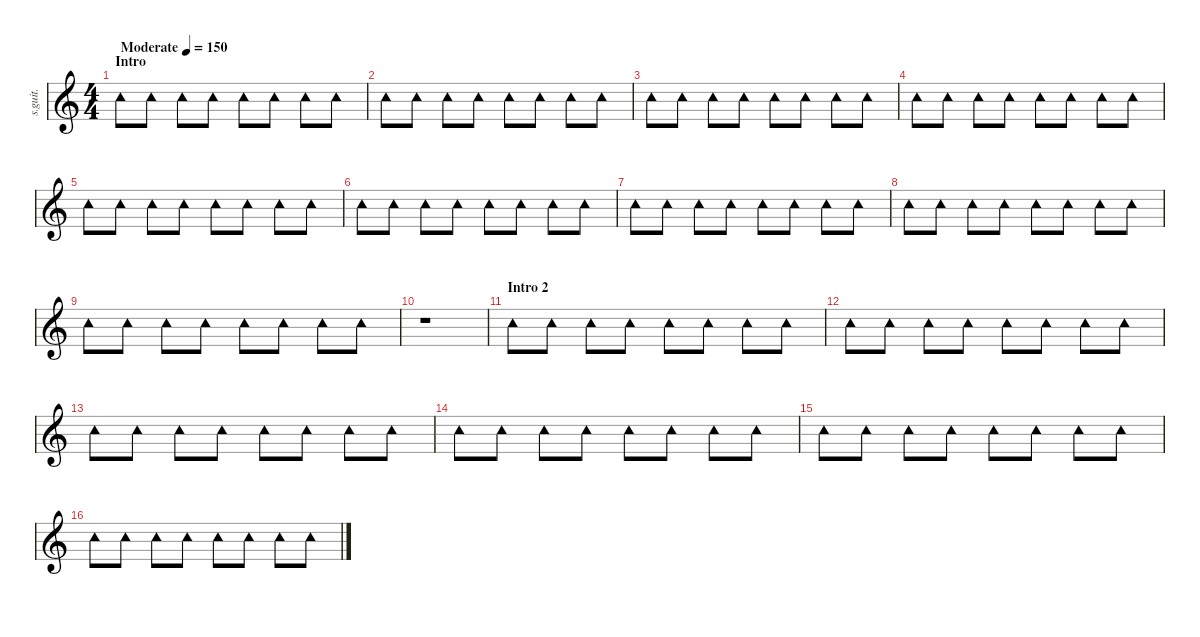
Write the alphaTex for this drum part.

\defaultSystemsLayout 4
\hideDynamics
\bracketExtendMode nobrackets
\track ("Synth Drums 2" "s.guit.") {instrument percussion}
\staff {score}
\articulation defaults
\ts (4 4)
\beaming (8 2 2 2 2)
\section ("" "Intro")
\tempo (150 "Moderate")
\clef g2
\ks c "Tambourine (hit)".8{lyrics (0 "") lyrics (1 "") lyrics (2 "") lyrics (3 "") lyrics (4 "") dy f} "Tambourine (hit)".8{lyrics (0 "") lyrics (1 "") lyrics (2 "") lyrics (3 "") lyrics (4 "")} "Tambourine (hit)".8{lyrics (0 "") lyrics (1 "") lyrics (2 "") lyrics (3 "") lyrics (4 "")} "Tambourine (hit)".8{lyrics (0 "") lyrics (1 "") lyrics (2 "") lyrics (3 "") lyrics (4 "")} "Tambourine (hit)".8{lyrics (0 "") lyrics (1 "") lyrics (2 "") lyrics (3 "") lyrics (4 "")} "Tambourine (hit)".8{lyrics (0 "") lyrics (1 "") lyrics (2 "") lyrics (3 "") lyrics (4 "")} "Tambourine (hit)".8{lyrics (0 "") lyrics (1 "") lyrics (2 "") lyrics (3 "") lyrics (4 "")} "Tambourine (hit)".8{lyrics (0 "") lyrics (1 "") lyrics (2 "") lyrics (3 "") lyrics (4 "")}
|
"Tambourine (hit)".8{lyrics (0 "") lyrics (1 "") lyrics (2 "") lyrics (3 "") lyrics (4 "")} "Tambourine (hit)".8{lyrics (0 "") lyrics (1 "") lyrics (2 "") lyrics (3 "") lyrics (4 "")} "Tambourine (hit)".8{lyrics (0 "") lyrics (1 "") lyrics (2 "") lyrics (3 "") lyrics (4 "")} "Tambourine (hit)".8{lyrics (0 "") lyrics (1 "") lyrics (2 "") lyrics (3 "") lyrics (4 "")} "Tambourine (hit)".8{lyrics (0 "") lyrics (1 "") lyrics (2 "") lyrics (3 "") lyrics (4 "")} "Tambourine (hit)".8{lyrics (0 "") lyrics (1 "") lyrics (2 "") lyrics (3 "") lyrics (4 "")} "Tambourine (hit)".8{lyrics (0 "") lyrics (1 "") lyrics (2 "") lyrics (3 "") lyrics (4 "")} "Tambourine (hit)".8{lyrics (0 "") lyrics (1 "") lyrics (2 "") lyrics (3 "") lyrics (4 "")} |
"Tambourine (hit)".8{lyrics (0 "") lyrics (1 "") lyrics (2 "") lyrics (3 "") lyrics (4 "")} "Tambourine (hit)".8{lyrics (0 "") lyrics (1 "") lyrics (2 "") lyrics (3 "") lyrics (4 "")} "Tambourine (hit)".8{lyrics (0 "") lyrics (1 "") lyrics (2 "") lyrics (3 "") lyrics (4 "")} "Tambourine (hit)".8{lyrics (0 "") lyrics (1 "") lyrics (2 "") lyrics (3 "") lyrics (4 "")} "Tambourine (hit)".8{lyrics (0 "") lyrics (1 "") lyrics (2 "") lyrics (3 "") lyrics (4 "")} "Tambourine (hit)".8{lyrics (0 "") lyrics (1 "") lyrics (2 "") lyrics (3 "") lyrics (4 "")} "Tambourine (hit)".8{lyrics (0 "") lyrics (1 "") lyrics (2 "") lyrics (3 "") lyrics (4 "")} "Tambourine (hit)".8{lyrics (0 "") lyrics (1 "") lyrics (2 "") lyrics (3 "") lyrics (4 "")} |
"Tambourine (hit)".8{lyrics (0 "") lyrics (1 "") lyrics (2 "") lyrics (3 "") lyrics (4 "")} "Tambourine (hit)".8{lyrics (0 "") lyrics (1 "") lyrics (2 "") lyrics (3 "") lyrics (4 "")} "Tambourine (hit)".8{lyrics (0 "") lyrics (1 "") lyrics (2 "") lyrics (3 "") lyrics (4 "")} "Tambourine (hit)".8{lyrics (0 "") lyrics (1 "") lyrics (2 "") lyrics (3 "") lyrics (4 "")} "Tambourine (hit)".8{lyrics (0 "") lyrics (1 "") lyrics (2 "") lyrics (3 "") lyrics (4 "")} "Tambourine (hit)".8{lyrics (0 "") lyrics (1 "") lyrics (2 "") lyrics (3 "") lyrics (4 "")} "Tambourine (hit)".8{lyrics (0 "") lyrics (1 "") lyrics (2 "") lyrics (3 "") lyrics (4 "")} "Tambourine (hit)".8{lyrics (0 "") lyrics (1 "") lyrics (2 "") lyrics (3 "") lyrics (4 "")} |
"Tambourine (hit)".8{lyrics (0 "") lyrics (1 "") lyrics (2 "") lyrics (3 "") lyrics (4 "")} "Tambourine (hit)".8{lyrics (0 "") lyrics (1 "") lyrics (2 "") lyrics (3 "") lyrics (4 "")} "Tambourine (hit)".8{lyrics (0 "") lyrics (1 "") lyrics (2 "") lyrics (3 "") lyrics (4 "")} "Tambourine (hit)".8{lyrics (0 "") lyrics (1 "") lyrics (2 "") lyrics (3 "") lyrics (4 "")} "Tambourine (hit)".8{lyrics (0 "") lyrics (1 "") lyrics (2 "") lyrics (3 "") lyrics (4 "")} "Tambourine (hit)".8{lyrics (0 "") lyrics (1 "") lyrics (2 "") lyrics (3 "") lyrics (4 "")} "Tambourine (hit)".8{lyrics (0 "") lyrics (1 "") lyrics (2 "") lyrics (3 "") lyrics (4 "")} "Tambourine (hit)".8{lyrics (0 "") lyrics (1 "") lyrics (2 "") lyrics (3 "") lyrics (4 "")} |
"Tambourine (hit)".8{lyrics (0 "") lyrics (1 "") lyrics (2 "") lyrics (3 "") lyrics (4 "")} "Tambourine (hit)".8{lyrics (0 "") lyrics (1 "") lyrics (2 "") lyrics (3 "") lyrics (4 "")} "Tambourine (hit)".8{lyrics (0 "") lyrics (1 "") lyrics (2 "") lyrics (3 "") lyrics (4 "")} "Tambourine (hit)".8{lyrics (0 "") lyrics (1 "") lyrics (2 "") lyrics (3 "") lyrics (4 "")} "Tambourine (hit)".8{lyrics (0 "") lyrics (1 "") lyrics (2 "") lyrics (3 "") lyrics (4 "")} "Tambourine (hit)".8{lyrics (0 "") lyrics (1 "") lyrics (2 "") lyrics (3 "") lyrics (4 "")} "Tambourine (hit)".8{lyrics (0 "") lyrics (1 "") lyrics (2 "") lyrics (3 "") lyrics (4 "")} "Tambourine (hit)".8{lyrics (0 "") lyrics (1 "") lyrics (2 "") lyrics (3 "") lyrics (4 "")} |
"Tambourine (hit)".8{lyrics (0 "") lyrics (1 "") lyrics (2 "") lyrics (3 "") lyrics (4 "")} "Tambourine (hit)".8{lyrics (0 "") lyrics (1 "") lyrics (2 "") lyrics (3 "") lyrics (4 "")} "Tambourine (hit)".8{lyrics (0 "") lyrics (1 "") lyrics (2 "") lyrics (3 "") lyrics (4 "")} "Tambourine (hit)".8{lyrics (0 "") lyrics (1 "") lyrics (2 "") lyrics (3 "") lyrics (4 "")} "Tambourine (hit)".8{lyrics (0 "") lyrics (1 "") lyrics (2 "") lyrics (3 "") lyrics (4 "")} "Tambourine (hit)".8{lyrics (0 "") lyrics (1 "") lyrics (2 "") lyrics (3 "") lyrics (4 "")} "Tambourine (hit)".8{lyrics (0 "") lyrics (1 "") lyrics (2 "") lyrics (3 "") lyrics (4 "")} "Tambourine (hit)".8{lyrics (0 "") lyrics (1 "") lyrics (2 "") lyrics (3 "") lyrics (4 "")} |
"Tambourine (hit)".8{lyrics (0 "") lyrics (1 "") lyrics (2 "") lyrics (3 "") lyrics (4 "")} "Tambourine (hit)".8{lyrics (0 "") lyrics (1 "") lyrics (2 "") lyrics (3 "") lyrics (4 "")} "Tambourine (hit)".8{lyrics (0 "") lyrics (1 "") lyrics (2 "") lyrics (3 "") lyrics (4 "")} "Tambourine (hit)".8{lyrics (0 "") lyrics (1 "") lyrics (2 "") lyrics (3 "") lyrics (4 "")} "Tambourine (hit)".8{lyrics (0 "") lyrics (1 "") lyrics (2 "") lyrics (3 "") lyrics (4 "")} "Tambourine (hit)".8{lyrics (0 "") lyrics (1 "") lyrics (2 "") lyrics (3 "") lyrics (4 "")} "Tambourine (hit)".8{lyrics (0 "") lyrics (1 "") lyrics (2 "") lyrics (3 "") lyrics (4 "")} "Tambourine (hit)".8{lyrics (0 "") lyrics (1 "") lyrics (2 "") lyrics (3 "") lyrics (4 "")} |
"Tambourine (hit)".8{lyrics (0 "") lyrics (1 "") lyrics (2 "") lyrics (3 "") lyrics (4 "")} "Tambourine (hit)".8{lyrics (0 "") lyrics (1 "") lyrics (2 "") lyrics (3 "") lyrics (4 "")} "Tambourine (hit)".8{lyrics (0 "") lyrics (1 "") lyrics (2 "") lyrics (3 "") lyrics (4 "")} "Tambourine (hit)".8{lyrics (0 "") lyrics (1 "") lyrics (2 "") lyrics (3 "") lyrics (4 "")} "Tambourine (hit)".8{lyrics (0 "") lyrics (1 "") lyrics (2 "") lyrics (3 "") lyrics (4 "")} "Tambourine (hit)".8{lyrics (0 "") lyrics (1 "") lyrics (2 "") lyrics (3 "") lyrics (4 "")} "Tambourine (hit)".8{lyrics (0 "") lyrics (1 "") lyrics (2 "") lyrics (3 "") lyrics (4 "")} "Tambourine (hit)".8{lyrics (0 "") lyrics (1 "") lyrics (2 "") lyrics (3 "") lyrics (4 "")} |
r.1 |
\section ("" "Intro 2")
"Tambourine (hit)".8{lyrics (0 "") lyrics (1 "") lyrics (2 "") lyrics (3 "") lyrics (4 "")} "Tambourine (hit)".8{lyrics (0 "") lyrics (1 "") lyrics (2 "") lyrics (3 "") lyrics (4 "")} "Tambourine (hit)".8{lyrics (0 "") lyrics (1 "") lyrics (2 "") lyrics (3 "") lyrics (4 "")} "Tambourine (hit)".8{lyrics (0 "") lyrics (1 "") lyrics (2 "") lyrics (3 "") lyrics (4 "")} "Tambourine (hit)".8{lyrics (0 "") lyrics (1 "") lyrics (2 "") lyrics (3 "") lyrics (4 "")} "Tambourine (hit)".8{lyrics (0 "") lyrics (1 "") lyrics (2 "") lyrics (3 "") lyrics (4 "")} "Tambourine (hit)".8{lyrics (0 "") lyrics (1 "") lyrics (2 "") lyrics (3 "") lyrics (4 "")} "Tambourine (hit)".8{lyrics (0 "") lyrics (1 "") lyrics (2 "") lyrics (3 "") lyrics (4 "")} |
"Tambourine (hit)".8{lyrics (0 "") lyrics (1 "") lyrics (2 "") lyrics (3 "") lyrics (4 "")} "Tambourine (hit)".8{lyrics (0 "") lyrics (1 "") lyrics (2 "") lyrics (3 "") lyrics (4 "")} "Tambourine (hit)".8{lyrics (0 "") lyrics (1 "") lyrics (2 "") lyrics (3 "") lyrics (4 "")} "Tambourine (hit)".8{lyrics (0 "") lyrics (1 "") lyrics (2 "") lyrics (3 "") lyrics (4 "")} "Tambourine (hit)".8{lyrics (0 "") lyrics (1 "") lyrics (2 "") lyrics (3 "") lyrics (4 "")} "Tambourine (hit)".8{lyrics (0 "") lyrics (1 "") lyrics (2 "") lyrics (3 "") lyrics (4 "")} "Tambourine (hit)".8{lyrics (0 "") lyrics (1 "") lyrics (2 "") lyrics (3 "") lyrics (4 "")} "Tambourine (hit)".8{lyrics (0 "") lyrics (1 "") lyrics (2 "") lyrics (3 "") lyrics (4 "")} |
"Tambourine (hit)".8{lyrics (0 "") lyrics (1 "") lyrics (2 "") lyrics (3 "") lyrics (4 "")} "Tambourine (hit)".8{lyrics (0 "") lyrics (1 "") lyrics (2 "") lyrics (3 "") lyrics (4 "")} "Tambourine (hit)".8{lyrics (0 "") lyrics (1 "") lyrics (2 "") lyrics (3 "") lyrics (4 "")} "Tambourine (hit)".8{lyrics (0 "") lyrics (1 "") lyrics (2 "") lyrics (3 "") lyrics (4 "")} "Tambourine (hit)".8{lyrics (0 "") lyrics (1 "") lyrics (2 "") lyrics (3 "") lyrics (4 "")} "Tambourine (hit)".8{lyrics (0 "") lyrics (1 "") lyrics (2 "") lyrics (3 "") lyrics (4 "")} "Tambourine (hit)".8{lyrics (0 "") lyrics (1 "") lyrics (2 "") lyrics (3 "") lyrics (4 "")} "Tambourine (hit)".8{lyrics (0 "") lyrics (1 "") lyrics (2 "") lyrics (3 "") lyrics (4 "")} |
"Tambourine (hit)".8{lyrics (0 "") lyrics (1 "") lyrics (2 "") lyrics (3 "") lyrics (4 "")} "Tambourine (hit)".8{lyrics (0 "") lyrics (1 "") lyrics (2 "") lyrics (3 "") lyrics (4 "")} "Tambourine (hit)".8{lyrics (0 "") lyrics (1 "") lyrics (2 "") lyrics (3 "") lyrics (4 "")} "Tambourine (hit)".8{lyrics (0 "") lyrics (1 "") lyrics (2 "") lyrics (3 "") lyrics (4 "")} "Tambourine (hit)".8{lyrics (0 "") lyrics (1 "") lyrics (2 "") lyrics (3 "") lyrics (4 "")} "Tambourine (hit)".8{lyrics (0 "") lyrics (1 "") lyrics (2 "") lyrics (3 "") lyrics (4 "")} "Tambourine (hit)".8{lyrics (0 "") lyrics (1 "") lyrics (2 "") lyrics (3 "") lyrics (4 "")} "Tambourine (hit)".8{lyrics (0 "") lyrics (1 "") lyrics (2 "") lyrics (3 "") lyrics (4 "")} |
"Tambourine (hit)".8{lyrics (0 "") lyrics (1 "") lyrics (2 "") lyrics (3 "") lyrics (4 "")} "Tambourine (hit)".8{lyrics (0 "") lyrics (1 "") lyrics (2 "") lyrics (3 "") lyrics (4 "")} "Tambourine (hit)".8{lyrics (0 "") lyrics (1 "") lyrics (2 "") lyrics (3 "") lyrics (4 "")} "Tambourine (hit)".8{lyrics (0 "") lyrics (1 "") lyrics (2 "") lyrics (3 "") lyrics (4 "")} "Tambourine (hit)".8{lyrics (0 "") lyrics (1 "") lyrics (2 "") lyrics (3 "") lyrics (4 "")} "Tambourine (hit)".8{lyrics (0 "") lyrics (1 "") lyrics (2 "") lyrics (3 "") lyrics (4 "")} "Tambourine (hit)".8{lyrics (0 "") lyrics (1 "") lyrics (2 "") lyrics (3 "") lyrics (4 "")} "Tambourine (hit)".8{lyrics (0 "") lyrics (1 "") lyrics (2 "") lyrics (3 "") lyrics (4 "")} |
"Tambourine (hit)".8{lyrics (0 "") lyrics (1 "") lyrics (2 "") lyrics (3 "") lyrics (4 "")} "Tambourine (hit)".8{lyrics (0 "") lyrics (1 "") lyrics (2 "") lyrics (3 "") lyrics (4 "")} "Tambourine (hit)".8{lyrics (0 "") lyrics (1 "") lyrics (2 "") lyrics (3 "") lyrics (4 "")} "Tambourine (hit)".8{lyrics (0 "") lyrics (1 "") lyrics (2 "") lyrics (3 "") lyrics (4 "")} "Tambourine (hit)".8{lyrics (0 "") lyrics (1 "") lyrics (2 "") lyrics (3 "") lyrics (4 "")} "Tambourine (hit)".8{lyrics (0 "") lyrics (1 "") lyrics (2 "") lyrics (3 "") lyrics (4 "")} "Tambourine (hit)".8{lyrics (0 "") lyrics (1 "") lyrics (2 "") lyrics (3 "") lyrics (4 "")} "Tambourine (hit)".8{lyrics (0 "") lyrics (1 "") lyrics (2 "") lyrics (3 "") lyrics (4 "")}
